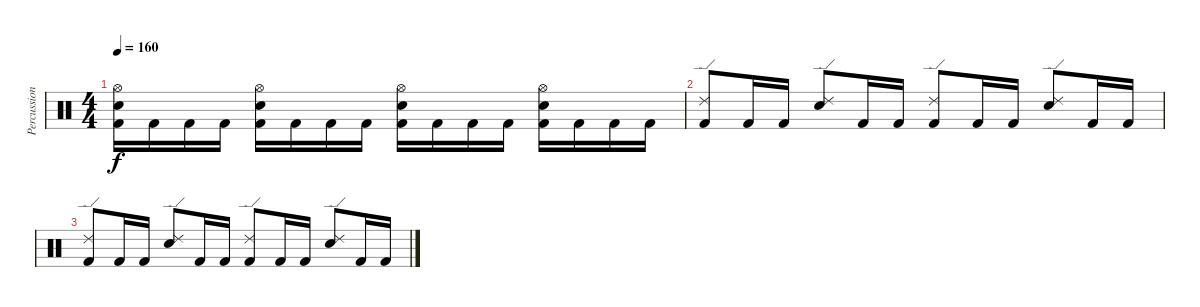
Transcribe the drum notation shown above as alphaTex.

\track ("Percussion" "Percussion") {instrument percussion}
\staff {score}
\articulation defaults
\ts (4 4)
\tempo 160
\clef neutral
\ks c
("Kick (hit) 2" "Electric Snare (hit)" "Hi-Hat (open)").16{dy f} "Kick (hit) 2".16 "Kick (hit) 2".16 "Kick (hit) 2".16 ("Kick (hit) 2" "Electric Snare (hit)" "Hi-Hat (open)").16 "Kick (hit) 2".16 "Kick (hit) 2".16 "Kick (hit) 2".16 ("Kick (hit) 2" "Electric Snare (hit)" "Hi-Hat (open)").16 "Kick (hit) 2".16 "Kick (hit) 2".16 "Kick (hit) 2".16 ("Kick (hit) 2" "Electric Snare (hit)" "Hi-Hat (open)").16 "Kick (hit) 2".16 "Kick (hit) 2".16 "Kick (hit) 2".16 |
("Kick (hit) 2" "Ride (edge) 2").8 "Kick (hit) 2".16 "Kick (hit) 2".16 ("Electric Snare (hit)" "Ride (edge) 2").8 "Kick (hit) 2".16 "Kick (hit) 2".16 ("Kick (hit) 2" "Ride (edge) 2").8 "Kick (hit) 2".16 "Kick (hit) 2".16 ("Electric Snare (hit)" "Ride (edge) 2").8 "Kick (hit) 2".16 "Kick (hit) 2".16 |
("Kick (hit) 2" "Ride (edge) 2").8 "Kick (hit) 2".16 "Kick (hit) 2".16 ("Electric Snare (hit)" "Ride (edge) 2").8 "Kick (hit) 2".16 "Kick (hit) 2".16 ("Kick (hit) 2" "Ride (edge) 2").8 "Kick (hit) 2".16 "Kick (hit) 2".16 ("Electric Snare (hit)" "Ride (edge) 2").8 "Kick (hit) 2".16 "Kick (hit) 2".16
